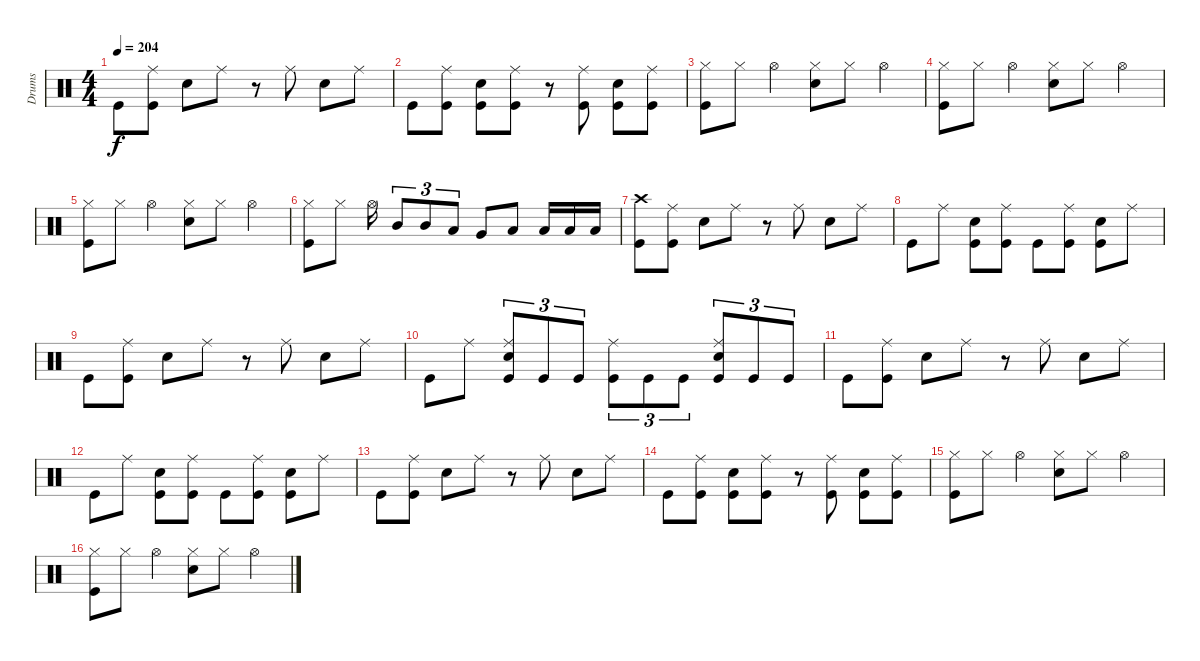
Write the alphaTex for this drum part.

\track ("Drums" "Drums") {instrument percussion}
\staff {score}
\articulation defaults
\ts (4 4)
\tempo 204
\clef neutral
\ks c "Kick (hit)".8{dy f}
("Ride (middle)" "Kick (hit)").8 "Electric Snare (hit)".8 "Ride (middle)".8 r.8 "Ride (middle)".8 "Electric Snare (hit)".8 "Ride (middle)".8 |
"Kick (hit)".8 ("Ride (middle)" "Kick (hit)").8 ("Electric Snare (hit)" "Kick (hit)").8 ("Ride (middle)" "Kick (hit)").8 r.8 ("Ride (middle)" "Kick (hit)").8 ("Electric Snare (hit)" "Kick (hit)").8 ("Ride (middle)" "Kick (hit)").8 |
("Hi-Hat (closed)" "Kick (hit)").8 "Hi-Hat (closed)".8 "Hi-Hat (open)".4 ("Hi-Hat (closed)" "Electric Snare (hit)").8 "Hi-Hat (closed)".8 "Hi-Hat (open)".4 |
("Hi-Hat (closed)" "Kick (hit)").8 "Hi-Hat (closed)".8 "Hi-Hat (open)".4 ("Hi-Hat (closed)" "Electric Snare (hit)").8 "Hi-Hat (closed)".8 "Hi-Hat (open)".4 |
("Hi-Hat (closed)" "Kick (hit)").8 "Hi-Hat (closed)".8 "Hi-Hat (open)".4 ("Hi-Hat (closed)" "Electric Snare (hit)").8 "Hi-Hat (closed)".8 "Hi-Hat (open)".4 |
("Hi-Hat (closed)" "Kick (hit)").8 "Hi-Hat (closed)".8 "Hi-Hat (open)".16 "Mid Tom (hit)".8{tu (3 2)} "Mid Tom (hit)".8{tu (3 2)} "Low Tom (hit)".8{tu (3 2)} "Very Low Tom (hit)".8 "Low Floor Tom (hit)".8 "Low Floor Tom (hit)".16 "Low Floor Tom (hit)".16 "Low Floor Tom (hit)".16 |
("Crash high (hit)" "Kick (hit)").8 ("Ride (middle)" "Kick (hit)").8 "Electric Snare (hit)".8 "Ride (middle)".8 r.8 "Ride (middle)".8 "Electric Snare (hit)".8 "Ride (middle)".8 |
"Kick (hit)".8 "Ride (middle)".8 ("Electric Snare (hit)" "Kick (hit)").8 ("Ride (middle)" "Kick (hit)").8 "Kick (hit)".8 ("Ride (middle)" "Kick (hit)").8 ("Electric Snare (hit)" "Kick (hit)").8 "Ride (middle)".8 |
"Kick (hit)".8 ("Ride (middle)" "Kick (hit)").8 "Electric Snare (hit)".8 "Ride (middle)".8 r.8 "Ride (middle)".8 "Electric Snare (hit)".8 "Ride (middle)".8 |
"Kick (hit)".8 "Ride (middle)".8 ("Ride (middle)" "Electric Snare (hit)" "Kick (hit)").8{tu (3 2)} "Kick (hit)".8{tu (3 2)} "Kick (hit)".8{tu (3 2)} ("Ride (middle)" "Kick (hit)").8{tu (3 2)} "Kick (hit)".8{tu (3 2)} "Kick (hit)".8{tu (3 2)} ("Ride (middle)" "Electric Snare (hit)" "Kick (hit)").8{tu (3 2)} "Kick (hit)".8{tu (3 2)} "Kick (hit)".8{tu (3 2)} |
"Kick (hit)".8 ("Ride (middle)" "Kick (hit)").8 "Electric Snare (hit)".8 "Ride (middle)".8 r.8 "Ride (middle)".8 "Electric Snare (hit)".8 "Ride (middle)".8 |
"Kick (hit)".8 "Ride (middle)".8 ("Electric Snare (hit)" "Kick (hit)").8 ("Ride (middle)" "Kick (hit)").8 "Kick (hit)".8 ("Ride (middle)" "Kick (hit)").8 ("Electric Snare (hit)" "Kick (hit)").8 "Ride (middle)".8 |
"Kick (hit)".8 ("Ride (middle)" "Kick (hit)").8 "Electric Snare (hit)".8 "Ride (middle)".8 r.8 "Ride (middle)".8 "Electric Snare (hit)".8 "Ride (middle)".8 |
"Kick (hit)".8 ("Ride (middle)" "Kick (hit)").8 ("Electric Snare (hit)" "Kick (hit)").8 ("Ride (middle)" "Kick (hit)").8 r.8 ("Ride (middle)" "Kick (hit)").8 ("Electric Snare (hit)" "Kick (hit)").8 ("Ride (middle)" "Kick (hit)").8 |
("Hi-Hat (closed)" "Kick (hit)").8 "Hi-Hat (closed)".8 "Hi-Hat (open)".4 ("Hi-Hat (closed)" "Electric Snare (hit)").8 "Hi-Hat (closed)".8 "Hi-Hat (open)".4 |
("Hi-Hat (closed)" "Kick (hit)").8 "Hi-Hat (closed)".8 "Hi-Hat (open)".4 ("Hi-Hat (closed)" "Electric Snare (hit)").8 "Hi-Hat (closed)".8 "Hi-Hat (open)".4
